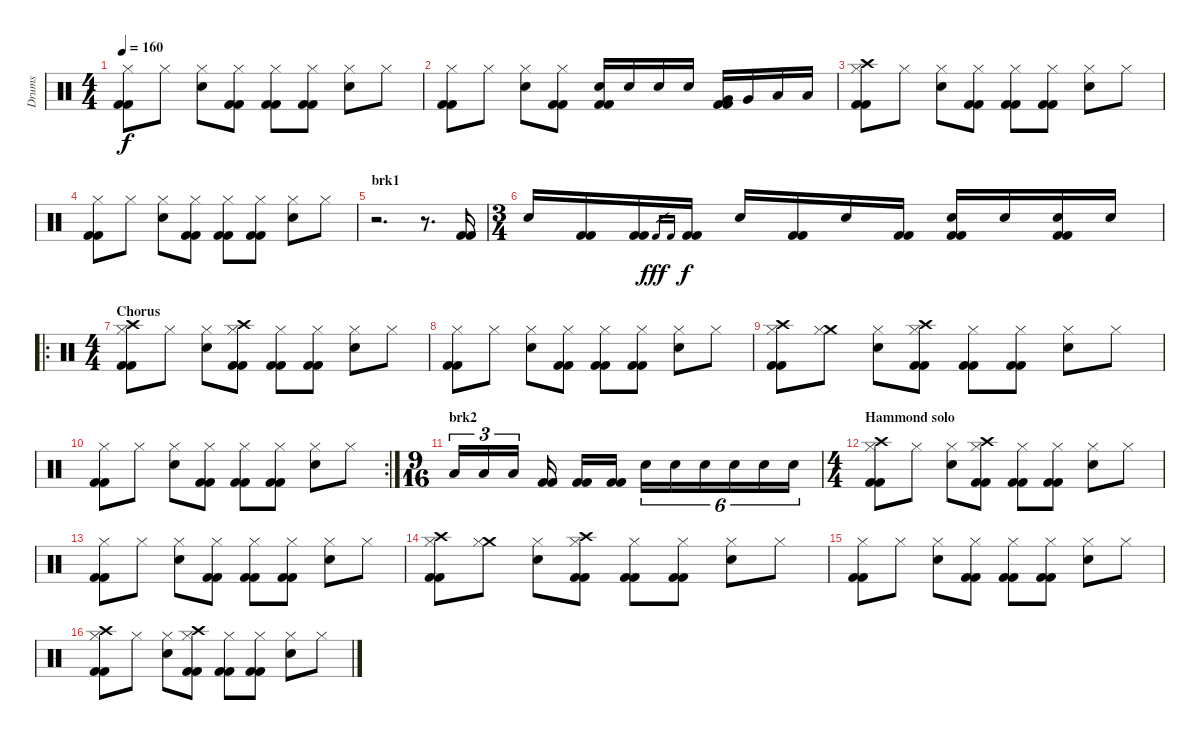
\track ("Drums" "Drums") {instrument percussion}
\staff {score}
\articulation defaults
\ts (4 4)
\tempo 160
\clef neutral
\ks c
("Hi-Hat (closed)" "Kick (hit) 2" "Kick (hit) 2").8{dy f} "Hi-Hat (closed)".8 ("Hi-Hat (closed)" "Electric Snare (hit)").8 ("Hi-Hat (closed)" "Kick (hit) 2" "Kick (hit) 2").8 ("Hi-Hat (closed)" "Kick (hit) 2" "Kick (hit) 2").8 ("Hi-Hat (closed)" "Kick (hit) 2" "Kick (hit) 2").8 ("Hi-Hat (closed)" "Electric Snare (hit)").8 "Hi-Hat (closed)".8 |
("Hi-Hat (closed)" "Kick (hit) 2" "Kick (hit) 2").8 "Hi-Hat (closed)".8 ("Hi-Hat (closed)" "Electric Snare (hit)").8 ("Hi-Hat (closed)" "Kick (hit) 2" "Kick (hit) 2").8 ("Electric Snare (hit)" "Kick (hit) 2" "Kick (hit) 2").16 "Electric Snare (hit)".16 "Electric Snare (hit)".16 "Electric Snare (hit)".16 ("Very Low Tom (hit)" "Kick (hit) 2" "Kick (hit) 2").16 "Very Low Tom (hit)".16 "Low Tom (hit)".16 "Low Tom (hit)".16 |
("Crash high (hit)" "Hi-Hat (closed)" "Kick (hit) 2" "Kick (hit) 2").8 "Hi-Hat (closed)".8 ("Hi-Hat (closed)" "Electric Snare (hit)").8 ("Hi-Hat (closed)" "Kick (hit) 2" "Kick (hit) 2").8 ("Hi-Hat (closed)" "Kick (hit) 2" "Kick (hit) 2").8 ("Hi-Hat (closed)" "Kick (hit) 2" "Kick (hit) 2").8 ("Hi-Hat (closed)" "Electric Snare (hit)").8 "Hi-Hat (closed)".8 |
("Hi-Hat (closed)" "Kick (hit) 2" "Kick (hit) 2").8 "Hi-Hat (closed)".8 ("Hi-Hat (closed)" "Electric Snare (hit)").8 ("Hi-Hat (closed)" "Kick (hit) 2" "Kick (hit) 2").8 ("Hi-Hat (closed)" "Kick (hit) 2" "Kick (hit) 2").8 ("Hi-Hat (closed)" "Kick (hit) 2" "Kick (hit) 2").8 ("Hi-Hat (closed)" "Electric Snare (hit)").8 "Hi-Hat (closed)".8 |
\section ("" "brk1")
r.2{d} r.8{d} ("Kick (hit) 2" "Kick (hit) 2").16 |
\ts (3 4)
"Electric Snare (hit)".16 ("Kick (hit) 2" "Kick (hit) 2").16 ("Kick (hit) 2" "Kick (hit) 2").16 "Kick (hit) 2".16{gr dy fff} "Kick (hit) 2".16{gr} ("Kick (hit) 2" "Kick (hit) 2").16{dy f} "Electric Snare (hit)".16 ("Kick (hit) 2" "Kick (hit) 2").16 "Electric Snare (hit)".16 ("Kick (hit) 2" "Kick (hit) 2").16 ("Electric Snare (hit)" "Kick (hit) 2" "Kick (hit) 2").16 "Electric Snare (hit)".16 ("Electric Snare (hit)" "Kick (hit) 2" "Kick (hit) 2").16 "Electric Snare (hit)".16 |
\ro
\ts (4 4)
\section ("" "Chorus")
("Crash high (hit)" "Hi-Hat (closed)" "Kick (hit) 2" "Kick (hit) 2").8 "Hi-Hat (closed)".8 ("Hi-Hat (closed)" "Electric Snare (hit)").8 ("Crash high (hit)" "Hi-Hat (closed)" "Kick (hit) 2" "Kick (hit) 2").8 ("Hi-Hat (closed)" "Kick (hit) 2" "Kick (hit) 2").8 ("Hi-Hat (closed)" "Kick (hit) 2" "Kick (hit) 2").8 ("Hi-Hat (closed)" "Electric Snare (hit)").8 "Hi-Hat (closed)".8 |
("Hi-Hat (closed)" "Kick (hit) 2" "Kick (hit) 2").8 "Hi-Hat (closed)".8 ("Hi-Hat (closed)" "Electric Snare (hit)").8 ("Hi-Hat (closed)" "Kick (hit) 2" "Kick (hit) 2").8 ("Hi-Hat (closed)" "Kick (hit) 2" "Kick (hit) 2").8 ("Hi-Hat (closed)" "Kick (hit) 2" "Kick (hit) 2").8 ("Hi-Hat (closed)" "Electric Snare (hit)").8 "Hi-Hat (closed)".8 |
("Crash high (hit)" "Hi-Hat (closed)" "Kick (hit) 2" "Kick (hit) 2").8 ("Crash medium (hit)" "Hi-Hat (closed)").8 ("Hi-Hat (closed)" "Electric Snare (hit)").8 ("Crash high (hit)" "Hi-Hat (closed)" "Kick (hit) 2" "Kick (hit) 2").8 ("Hi-Hat (closed)" "Kick (hit) 2" "Kick (hit) 2").8 ("Hi-Hat (closed)" "Kick (hit) 2" "Kick (hit) 2").8 ("Hi-Hat (closed)" "Electric Snare (hit)").8 "Hi-Hat (closed)".8 |
\rc 2
("Hi-Hat (closed)" "Kick (hit) 2" "Kick (hit) 2").8 "Hi-Hat (closed)".8 ("Hi-Hat (closed)" "Electric Snare (hit)").8 ("Hi-Hat (closed)" "Kick (hit) 2" "Kick (hit) 2").8 ("Hi-Hat (closed)" "Kick (hit) 2" "Kick (hit) 2").8 ("Hi-Hat (closed)" "Kick (hit) 2" "Kick (hit) 2").8 ("Hi-Hat (closed)" "Electric Snare (hit)").8 "Hi-Hat (closed)".8 |
\ts (9 16)
\section ("" "brk2")
"Low Tom (hit)".16{tu (3 2)} "Low Tom (hit)".16{tu (3 2)} "Low Tom (hit)".16{tu (3 2)} ("Kick (hit) 2" "Kick (hit) 2").16 ("Kick (hit) 2" "Kick (hit) 2").16 ("Kick (hit) 2" "Kick (hit) 2").16 "Electric Snare (hit)".16{tu (6 4)} "Electric Snare (hit)".16{tu (6 4)} "Electric Snare (hit)".16{tu (6 4)} "Electric Snare (hit)".16{tu (6 4)} "Electric Snare (hit)".16{tu (6 4)} "Electric Snare (hit)".16{tu (6 4)} |
\ts (4 4)
\section ("" "Hammond solo")
("Crash high (hit)" "Hi-Hat (closed)" "Kick (hit) 2" "Kick (hit) 2").8 "Hi-Hat (closed)".8 ("Hi-Hat (closed)" "Electric Snare (hit)").8 ("Crash high (hit)" "Hi-Hat (closed)" "Kick (hit) 2" "Kick (hit) 2").8 ("Hi-Hat (closed)" "Kick (hit) 2" "Kick (hit) 2").8 ("Hi-Hat (closed)" "Kick (hit) 2" "Kick (hit) 2").8 ("Hi-Hat (closed)" "Electric Snare (hit)").8 "Hi-Hat (closed)".8 |
("Hi-Hat (closed)" "Kick (hit) 2" "Kick (hit) 2").8 "Hi-Hat (closed)".8 ("Hi-Hat (closed)" "Electric Snare (hit)").8 ("Hi-Hat (closed)" "Kick (hit) 2" "Kick (hit) 2").8 ("Hi-Hat (closed)" "Kick (hit) 2" "Kick (hit) 2").8 ("Hi-Hat (closed)" "Kick (hit) 2" "Kick (hit) 2").8 ("Hi-Hat (closed)" "Electric Snare (hit)").8 "Hi-Hat (closed)".8 |
("Crash high (hit)" "Hi-Hat (closed)" "Kick (hit) 2" "Kick (hit) 2").8 ("Crash medium (hit)" "Hi-Hat (closed)").8 ("Hi-Hat (closed)" "Electric Snare (hit)").8 ("Crash high (hit)" "Hi-Hat (closed)" "Kick (hit) 2" "Kick (hit) 2").8 ("Hi-Hat (closed)" "Kick (hit) 2" "Kick (hit) 2").8 ("Hi-Hat (closed)" "Kick (hit) 2" "Kick (hit) 2").8 ("Hi-Hat (closed)" "Electric Snare (hit)").8 "Hi-Hat (closed)".8 |
("Hi-Hat (closed)" "Kick (hit) 2" "Kick (hit) 2").8 "Hi-Hat (closed)".8 ("Hi-Hat (closed)" "Electric Snare (hit)").8 ("Hi-Hat (closed)" "Kick (hit) 2" "Kick (hit) 2").8 ("Hi-Hat (closed)" "Kick (hit) 2" "Kick (hit) 2").8 ("Hi-Hat (closed)" "Kick (hit) 2" "Kick (hit) 2").8 ("Hi-Hat (closed)" "Electric Snare (hit)").8 "Hi-Hat (closed)".8 |
("Crash high (hit)" "Hi-Hat (closed)" "Kick (hit) 2" "Kick (hit) 2").8 "Hi-Hat (closed)".8 ("Hi-Hat (closed)" "Electric Snare (hit)").8 ("Crash high (hit)" "Hi-Hat (closed)" "Kick (hit) 2" "Kick (hit) 2").8 ("Hi-Hat (closed)" "Kick (hit) 2" "Kick (hit) 2").8 ("Hi-Hat (closed)" "Kick (hit) 2" "Kick (hit) 2").8 ("Hi-Hat (closed)" "Electric Snare (hit)").8 "Hi-Hat (closed)".8
